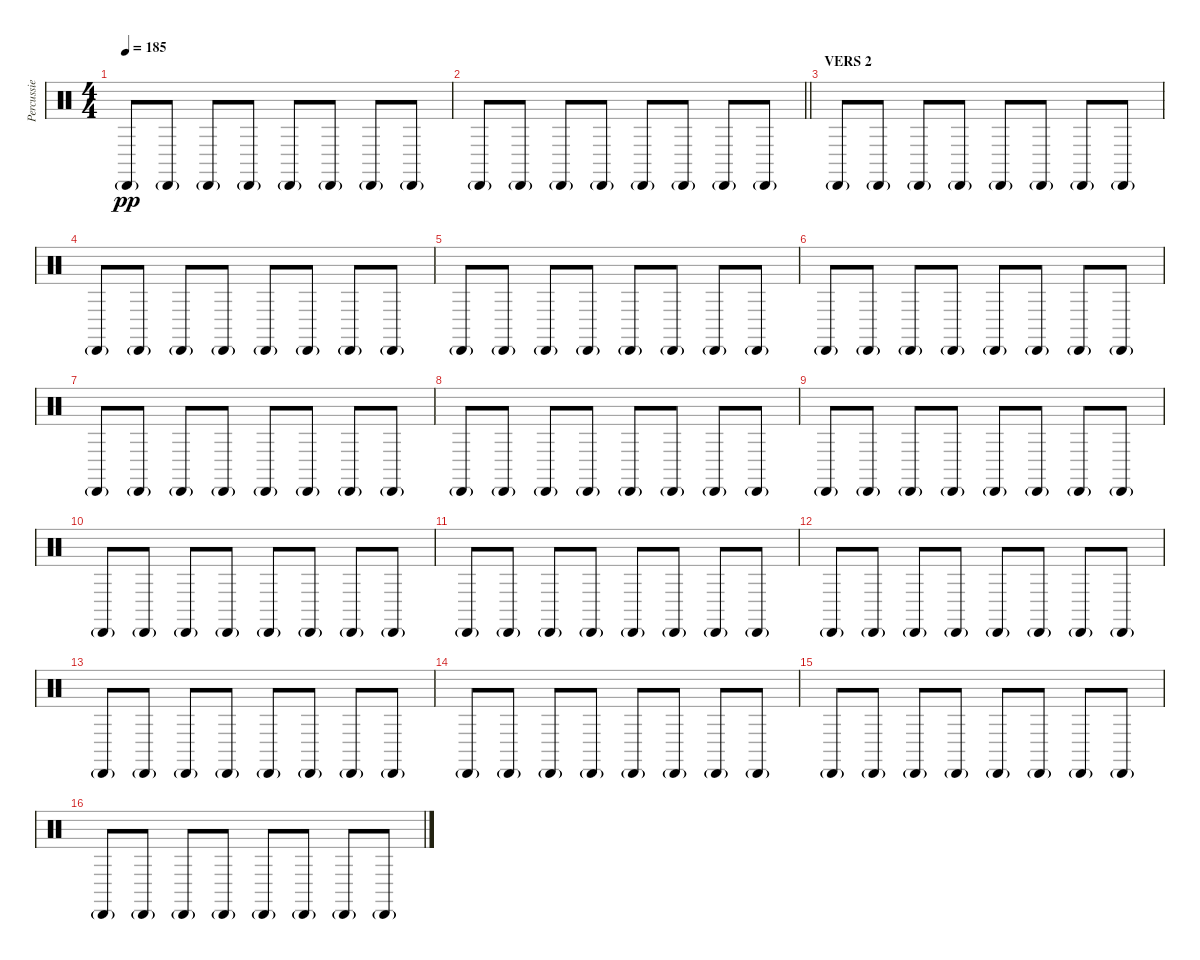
\track ("Percussie" "Percussie") {instrument percussion}
\staff {score}
\articulation defaults
\ts (4 4)
\tempo 185
\clef neutral
\ks c "Cabasa (hit)"{g}.8{dy pp} "Cabasa (hit)"{g}.8 "Cabasa (hit)"{g}.8 "Cabasa (hit)"{g}.8 "Cabasa (hit)"{g}.8 "Cabasa (hit)"{g}.8 "Cabasa (hit)"{g}.8 "Cabasa (hit)"{g}.8
|
\barLineRight lightlight "Cabasa (hit)"{g}.8 "Cabasa (hit)"{g}.8 "Cabasa (hit)"{g}.8 "Cabasa (hit)"{g}.8 "Cabasa (hit)"{g}.8 "Cabasa (hit)"{g}.8 "Cabasa (hit)"{g}.8 "Cabasa (hit)"{g}.8
|
\section ("" "VERS 2")
"Cabasa (hit)"{g}.8 "Cabasa (hit)"{g}.8 "Cabasa (hit)"{g}.8 "Cabasa (hit)"{g}.8 "Cabasa (hit)"{g}.8 "Cabasa (hit)"{g}.8 "Cabasa (hit)"{g}.8 "Cabasa (hit)"{g}.8 |
"Cabasa (hit)"{g}.8 "Cabasa (hit)"{g}.8 "Cabasa (hit)"{g}.8 "Cabasa (hit)"{g}.8 "Cabasa (hit)"{g}.8 "Cabasa (hit)"{g}.8 "Cabasa (hit)"{g}.8 "Cabasa (hit)"{g}.8 |
"Cabasa (hit)"{g}.8 "Cabasa (hit)"{g}.8 "Cabasa (hit)"{g}.8 "Cabasa (hit)"{g}.8 "Cabasa (hit)"{g}.8 "Cabasa (hit)"{g}.8 "Cabasa (hit)"{g}.8 "Cabasa (hit)"{g}.8 |
"Cabasa (hit)"{g}.8 "Cabasa (hit)"{g}.8 "Cabasa (hit)"{g}.8 "Cabasa (hit)"{g}.8 "Cabasa (hit)"{g}.8 "Cabasa (hit)"{g}.8 "Cabasa (hit)"{g}.8 "Cabasa (hit)"{g}.8 |
"Cabasa (hit)"{g}.8 "Cabasa (hit)"{g}.8 "Cabasa (hit)"{g}.8 "Cabasa (hit)"{g}.8 "Cabasa (hit)"{g}.8 "Cabasa (hit)"{g}.8 "Cabasa (hit)"{g}.8 "Cabasa (hit)"{g}.8 |
"Cabasa (hit)"{g}.8 "Cabasa (hit)"{g}.8 "Cabasa (hit)"{g}.8 "Cabasa (hit)"{g}.8 "Cabasa (hit)"{g}.8 "Cabasa (hit)"{g}.8 "Cabasa (hit)"{g}.8 "Cabasa (hit)"{g}.8 |
"Cabasa (hit)"{g}.8 "Cabasa (hit)"{g}.8 "Cabasa (hit)"{g}.8 "Cabasa (hit)"{g}.8 "Cabasa (hit)"{g}.8 "Cabasa (hit)"{g}.8 "Cabasa (hit)"{g}.8 "Cabasa (hit)"{g}.8 |
"Cabasa (hit)"{g}.8 "Cabasa (hit)"{g}.8 "Cabasa (hit)"{g}.8 "Cabasa (hit)"{g}.8 "Cabasa (hit)"{g}.8 "Cabasa (hit)"{g}.8 "Cabasa (hit)"{g}.8 "Cabasa (hit)"{g}.8 |
"Cabasa (hit)"{g}.8 "Cabasa (hit)"{g}.8 "Cabasa (hit)"{g}.8 "Cabasa (hit)"{g}.8 "Cabasa (hit)"{g}.8 "Cabasa (hit)"{g}.8 "Cabasa (hit)"{g}.8 "Cabasa (hit)"{g}.8 |
"Cabasa (hit)"{g}.8 "Cabasa (hit)"{g}.8 "Cabasa (hit)"{g}.8 "Cabasa (hit)"{g}.8 "Cabasa (hit)"{g}.8 "Cabasa (hit)"{g}.8 "Cabasa (hit)"{g}.8 "Cabasa (hit)"{g}.8 |
"Cabasa (hit)"{g}.8 "Cabasa (hit)"{g}.8 "Cabasa (hit)"{g}.8 "Cabasa (hit)"{g}.8 "Cabasa (hit)"{g}.8 "Cabasa (hit)"{g}.8 "Cabasa (hit)"{g}.8 "Cabasa (hit)"{g}.8 |
"Cabasa (hit)"{g}.8 "Cabasa (hit)"{g}.8 "Cabasa (hit)"{g}.8 "Cabasa (hit)"{g}.8 "Cabasa (hit)"{g}.8 "Cabasa (hit)"{g}.8 "Cabasa (hit)"{g}.8 "Cabasa (hit)"{g}.8 |
"Cabasa (hit)"{g}.8 "Cabasa (hit)"{g}.8 "Cabasa (hit)"{g}.8 "Cabasa (hit)"{g}.8 "Cabasa (hit)"{g}.8 "Cabasa (hit)"{g}.8 "Cabasa (hit)"{g}.8 "Cabasa (hit)"{g}.8 |
"Cabasa (hit)"{g}.8 "Cabasa (hit)"{g}.8 "Cabasa (hit)"{g}.8 "Cabasa (hit)"{g}.8 "Cabasa (hit)"{g}.8 "Cabasa (hit)"{g}.8 "Cabasa (hit)"{g}.8 "Cabasa (hit)"{g}.8
